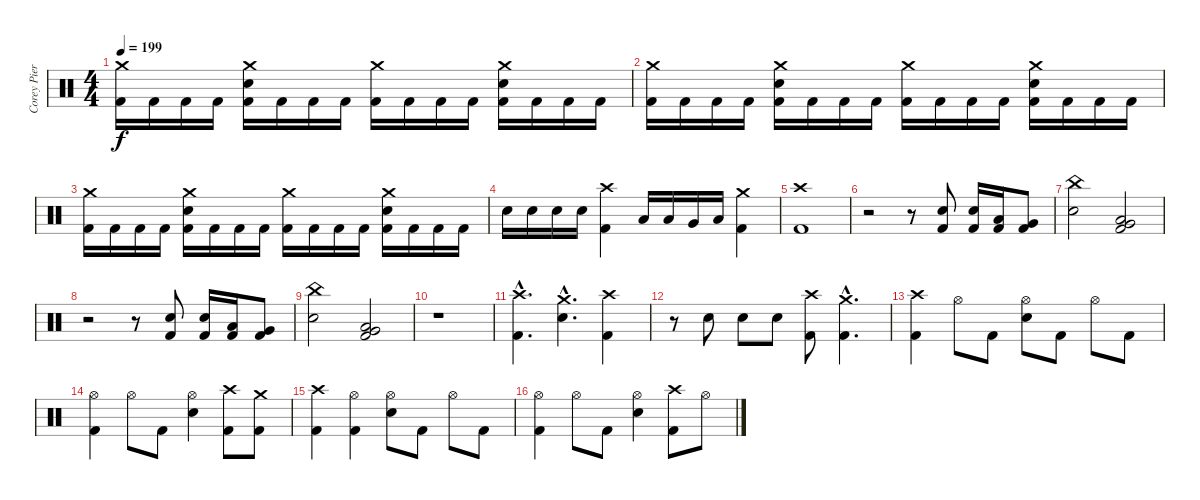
\track ("Corey Pierce (Drums)" "Corey Pier") {instrument percussion}
\staff {score}
\articulation defaults
\ts (4 4)
\tempo 199
\clef neutral
\ks c
("Crash medium (hit)" "Kick (hit) 2").16{dy f} "Kick (hit) 2".16 "Kick (hit) 2".16 "Kick (hit) 2".16 ("Snare (hit) 2" "Crash medium (hit)" "Kick (hit) 2").16 "Kick (hit) 2".16 "Kick (hit) 2".16 "Kick (hit) 2".16 ("Crash medium (hit)" "Kick (hit) 2").16 "Kick (hit) 2".16 "Kick (hit) 2".16 "Kick (hit) 2".16 ("Snare (hit) 2" "Crash medium (hit)" "Kick (hit) 2").16 "Kick (hit) 2".16 "Kick (hit) 2".16 "Kick (hit) 2".16 |
("Crash medium (hit)" "Kick (hit) 2").16 "Kick (hit) 2".16 "Kick (hit) 2".16 "Kick (hit) 2".16 ("Snare (hit) 2" "Crash medium (hit)" "Kick (hit) 2").16 "Kick (hit) 2".16 "Kick (hit) 2".16 "Kick (hit) 2".16 ("Crash medium (hit)" "Kick (hit) 2").16 "Kick (hit) 2".16 "Kick (hit) 2".16 "Kick (hit) 2".16 ("Snare (hit) 2" "Crash medium (hit)" "Kick (hit) 2").16 "Kick (hit) 2".16 "Kick (hit) 2".16 "Kick (hit) 2".16 |
("Crash medium (hit)" "Kick (hit) 2").16 "Kick (hit) 2".16 "Kick (hit) 2".16 "Kick (hit) 2".16 ("Snare (hit) 2" "Crash medium (hit)" "Kick (hit) 2").16 "Kick (hit) 2".16 "Kick (hit) 2".16 "Kick (hit) 2".16 ("Crash medium (hit)" "Kick (hit) 2").16 "Kick (hit) 2".16 "Kick (hit) 2".16 "Kick (hit) 2".16 ("Snare (hit) 2" "Crash medium (hit)" "Kick (hit) 2").16 "Kick (hit) 2".16 "Kick (hit) 2".16 "Kick (hit) 2".16 |
"Snare (hit) 2".16 "Snare (hit) 2".16 "Snare (hit) 2".16 "Snare (hit) 2".16 ("Crash high (hit)" "Kick (hit) 2").4 "Low Tom (hit)".16 "Low Tom (hit)".16 "Very Low Tom (hit)".16 "Low Floor Tom (hit)".16 ("Crash medium (hit)" "Kick (hit) 2").4 |
("Crash high (hit)" "Kick (hit) 2").1 |
r.2 r.8 ("Kick (hit) 2" "Snare (hit) 2").8 ("Kick (hit) 2" "Snare (hit) 2").16 ("Kick (hit) 2" "Low Tom (hit)").16 ("Kick (hit) 2" "Very Low Tom (hit)").8 |
("China (hit)" "Snare (hit) 2").2 ("Low Floor Tom (hit)" "Very Low Tom (hit)" "Kick (hit) 2").2 |
r.2 r.8 ("Kick (hit) 2" "Snare (hit) 2").8 ("Kick (hit) 2" "Snare (hit) 2").16 ("Kick (hit) 2" "Low Tom (hit)").16 ("Kick (hit) 2" "Very Low Tom (hit)").8 |
("China (hit)" "Snare (hit) 2").2 ("Low Floor Tom (hit)" "Very Low Tom (hit)" "Kick (hit) 2").2 |
r.1 |
("Crash high (hit)"{hac} "Kick (hit) 2"{hac}).4{d} ("Crash medium (hit)"{hac} "Snare (hit) 2"{hac}).4{d} ("Crash high (hit)" "Kick (hit) 2").4 |
r.8 "Snare (hit) 2".8 "Snare (hit) 2".8 "Snare (hit) 2".8 ("Crash high (hit)" "Kick (hit) 2").8 ("Crash medium (hit)"{hac} "Kick (hit) 2"{hac}).4{d} |
("Crash high (hit)" "Kick (hit) 2").4 "Hi-Hat (open)".8 "Kick (hit) 2".8 ("Hi-Hat (open)" "Snare (hit) 2").8 "Kick (hit) 2".8 "Hi-Hat (open)".8 "Kick (hit) 2".8 |
("Hi-Hat (open)" "Kick (hit) 2").4 "Hi-Hat (open)".8 "Kick (hit) 2".8 ("Hi-Hat (open)" "Snare (hit) 2").4 ("Crash high (hit)" "Kick (hit) 2").8 ("Crash medium (hit)" "Kick (hit) 2").8 |
("Crash high (hit)" "Kick (hit) 2").4 ("Hi-Hat (open)" "Kick (hit) 2").4 ("Hi-Hat (open)" "Snare (hit) 2").8 "Kick (hit) 2".8 "Hi-Hat (open)".8 "Kick (hit) 2".8 |
("Hi-Hat (open)" "Kick (hit) 2").4 "Hi-Hat (open)".8 "Kick (hit) 2".8 ("Hi-Hat (open)" "Snare (hit) 2").4 ("Crash high (hit)" "Kick (hit) 2").8 "Hi-Hat (open)".8
